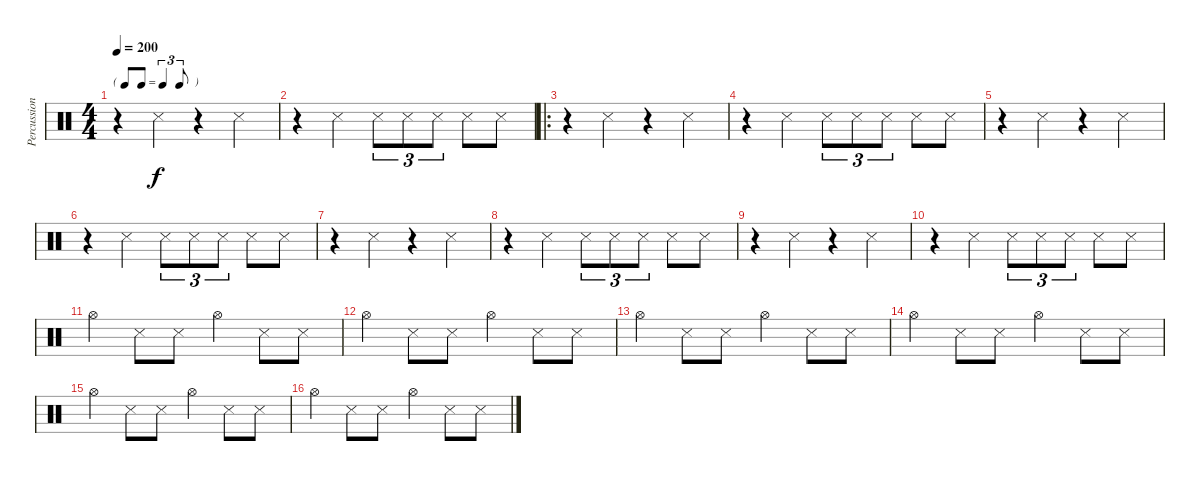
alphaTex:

\track ("Percussion" "Percussion") {instrument percussion}
\staff {score}
\articulation defaults
\ts (4 4)
\tf triplet8th
\tempo 200
\clef neutral
\ks c
r.4{dy f} "Snare (side stick) 3".4 r.4 "Snare (side stick) 3".4 |
r.4 "Snare (side stick) 3".4 "Snare (side stick) 3".8{tu (3 2)} "Snare (side stick) 3".8{tu (3 2)} "Snare (side stick) 3".8{tu (3 2)} "Snare (side stick) 3".8 "Snare (side stick) 3".8 |
\ro
r.4 "Snare (side stick) 3".4 r.4 "Snare (side stick) 3".4 |
r.4 "Snare (side stick) 3".4 "Snare (side stick) 3".8{tu (3 2)} "Snare (side stick) 3".8{tu (3 2)} "Snare (side stick) 3".8{tu (3 2)} "Snare (side stick) 3".8 "Snare (side stick) 3".8 |
r.4 "Snare (side stick) 3".4 r.4 "Snare (side stick) 3".4 |
r.4 "Snare (side stick) 3".4 "Snare (side stick) 3".8{tu (3 2)} "Snare (side stick) 3".8{tu (3 2)} "Snare (side stick) 3".8{tu (3 2)} "Snare (side stick) 3".8 "Snare (side stick) 3".8 |
r.4 "Snare (side stick) 3".4 r.4 "Snare (side stick) 3".4 |
r.4 "Snare (side stick) 3".4 "Snare (side stick) 3".8{tu (3 2)} "Snare (side stick) 3".8{tu (3 2)} "Snare (side stick) 3".8{tu (3 2)} "Snare (side stick) 3".8 "Snare (side stick) 3".8 |
r.4 "Snare (side stick) 3".4 r.4 "Snare (side stick) 3".4 |
r.4 "Snare (side stick) 3".4 "Snare (side stick) 3".8{tu (3 2)} "Snare (side stick) 3".8{tu (3 2)} "Snare (side stick) 3".8{tu (3 2)} "Snare (side stick) 3".8 "Snare (side stick) 3".8 |
"Hi-Hat (open)".4 "Snare (side stick) 3".8 "Snare (side stick) 3".8 "Hi-Hat (open)".4 "Snare (side stick) 3".8 "Snare (side stick) 3".8 |
"Hi-Hat (open)".4 "Snare (side stick) 3".8 "Snare (side stick) 3".8 "Hi-Hat (open)".4 "Snare (side stick) 3".8 "Snare (side stick) 3".8 |
"Hi-Hat (open)".4 "Snare (side stick) 3".8 "Snare (side stick) 3".8 "Hi-Hat (open)".4 "Snare (side stick) 3".8 "Snare (side stick) 3".8 |
"Hi-Hat (open)".4 "Snare (side stick) 3".8 "Snare (side stick) 3".8 "Hi-Hat (open)".4 "Snare (side stick) 3".8 "Snare (side stick) 3".8 |
"Hi-Hat (open)".4 "Snare (side stick) 3".8 "Snare (side stick) 3".8 "Hi-Hat (open)".4 "Snare (side stick) 3".8 "Snare (side stick) 3".8 |
"Hi-Hat (open)".4 "Snare (side stick) 3".8 "Snare (side stick) 3".8 "Hi-Hat (open)".4 "Snare (side stick) 3".8 "Snare (side stick) 3".8
